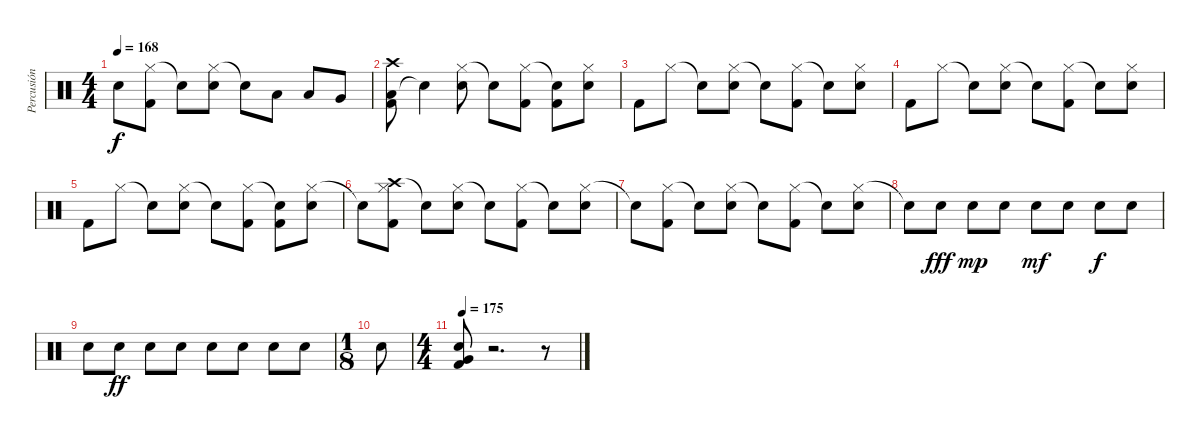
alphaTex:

\track ("Percusión" "Percusión") {instrument percussion}
\staff {score}
\articulation defaults
\ts (4 4)
\tempo 168
\clef neutral
\ks c "Snare (hit)"{t}.8{dy f}
("Hi-Hat (closed)" "Kick (hit) 2").8 "Snare (hit)"{t}.8 ("Hi-Hat (closed)" "Snare (hit) 2").8 "Snare (hit)"{t}.8 "Low Tom (hit)".8 "Low Tom (hit)".8 "Very Low Tom (hit)".8 |
("Low Floor Tom (hit)" "Crash high (hit)" "Kick (hit) 2").8 "Snare (hit)"{t}.4 ("Hi-Hat (closed)" "Snare (hit) 2").8 "Snare (hit)"{t}.8 ("Hi-Hat (closed)" "Kick (hit) 2").8 ("Snare (hit)"{t} "Kick (hit) 2").8 ("Hi-Hat (closed)" "Snare (hit) 2").8 |
"Kick (hit) 2".8 "Hi-Hat (closed)".8 "Snare (hit)"{t}.8 ("Hi-Hat (closed)" "Snare (hit) 2").8 "Snare (hit)"{t}.8 ("Hi-Hat (closed)" "Kick (hit) 2").8 "Snare (hit)"{t}.8 ("Hi-Hat (closed)" "Snare (hit) 2").8 |
"Kick (hit) 2".8 "Hi-Hat (closed)".8 "Snare (hit)"{t}.8 ("Hi-Hat (closed)" "Snare (hit) 2").8 "Snare (hit)"{t}.8 ("Hi-Hat (closed)" "Kick (hit) 2").8 "Snare (hit)"{t}.8 ("Hi-Hat (closed)" "Snare (hit) 2").8 |
"Kick (hit) 2".8 "Hi-Hat (closed)".8 "Snare (hit)"{t}.8 ("Hi-Hat (closed)" "Snare (hit) 2").8 "Snare (hit)"{t}.8 ("Hi-Hat (closed)" "Kick (hit) 2").8 ("Snare (hit)"{t} "Kick (hit) 2").8 ("Hi-Hat (closed)" "Snare (hit) 2").8 |
"Snare (hit)"{t}.8 ("Crash high (hit)" "Hi-Hat (closed)" "Kick (hit) 2").8 "Snare (hit)"{t}.8 ("Hi-Hat (closed)" "Snare (hit) 2").8 "Snare (hit)"{t}.8 ("Hi-Hat (closed)" "Kick (hit) 2").8 "Snare (hit)"{t}.8 ("Hi-Hat (closed)" "Snare (hit) 2").8 |
"Snare (hit)"{t}.8 ("Hi-Hat (closed)" "Kick (hit) 2").8 "Snare (hit)"{t}.8 ("Hi-Hat (closed)" "Snare (hit) 2").8 "Snare (hit)"{t}.8 ("Hi-Hat (closed)" "Kick (hit) 2").8 "Snare (hit)"{t}.8 ("Hi-Hat (closed)" "Snare (hit) 2").8 |
"Snare (hit)"{t}.8 "Snare (hit) 2".8{dy fff} "Snare (hit) 2".8{dy mp} "Snare (hit) 2".8 "Snare (hit) 2".8{dy mf} "Snare (hit) 2".8 "Snare (hit) 2".8{dy f} "Snare (hit) 2".8 |
"Snare (hit) 2".8 "Snare (hit) 2".8{dy ff} "Snare (hit) 2".8 "Snare (hit) 2".8 "Snare (hit) 2".8 "Snare (hit) 2".8 "Snare (hit) 2".8 "Snare (hit) 2".8 |
\ts (1 8)
"Snare (hit) 2".8 |
\ts (4 4)
\tempo 175
("Very Low Tom (hit)" "Snare (hit) 2" "Kick (hit) 2").8 r.2{d} r.8
